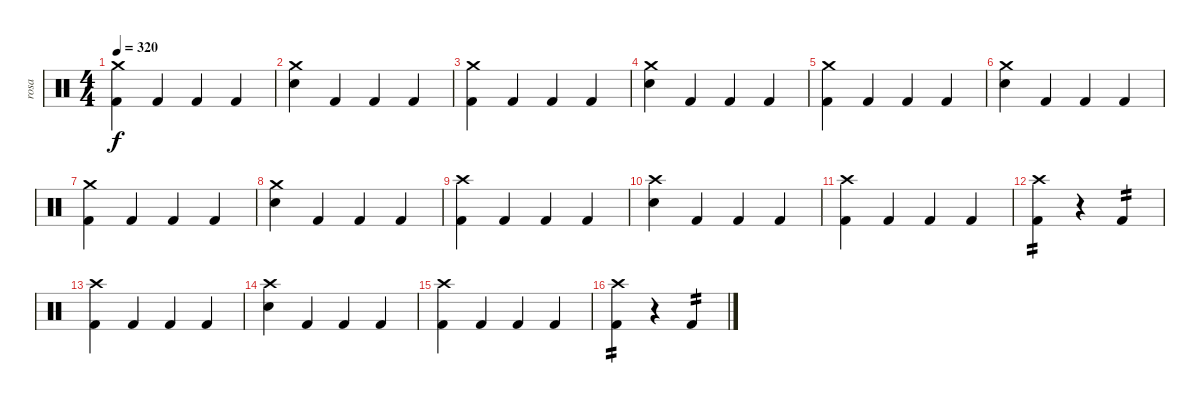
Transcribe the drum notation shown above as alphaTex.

\track ("rosa" "rosa") {instrument percussion}
\staff {score}
\articulation defaults
\ts (4 4)
\tempo 320
\clef neutral
\ks c
("Crash medium (hit)" "Kick (hit) 2").4{dy f} "Kick (hit) 2".4 "Kick (hit) 2".4 "Kick (hit) 2".4 |
("Crash medium (hit)" "Electric Snare (hit)").4 "Kick (hit) 2".4 "Kick (hit) 2".4 "Kick (hit) 2".4 |
("Crash medium (hit)" "Kick (hit) 2").4 "Kick (hit) 2".4 "Kick (hit) 2".4 "Kick (hit) 2".4 |
("Crash medium (hit)" "Electric Snare (hit)").4 "Kick (hit) 2".4 "Kick (hit) 2".4 "Kick (hit) 2".4 |
("Crash medium (hit)" "Kick (hit) 2").4 "Kick (hit) 2".4 "Kick (hit) 2".4 "Kick (hit) 2".4 |
("Crash medium (hit)" "Electric Snare (hit)").4 "Kick (hit) 2".4 "Kick (hit) 2".4 "Kick (hit) 2".4 |
("Crash medium (hit)" "Kick (hit) 2").4 "Kick (hit) 2".4 "Kick (hit) 2".4 "Kick (hit) 2".4 |
("Crash medium (hit)" "Electric Snare (hit)").4 "Kick (hit) 2".4 "Kick (hit) 2".4 "Kick (hit) 2".4 |
("Crash high (hit)" "Kick (hit) 2").4 "Kick (hit) 2".4 "Kick (hit) 2".4 "Kick (hit) 2".4 |
("Crash high (hit)" "Electric Snare (hit)").4 "Kick (hit) 2".4 "Kick (hit) 2".4 "Kick (hit) 2".4 |
("Crash high (hit)" "Kick (hit) 2").4 "Kick (hit) 2".4 "Kick (hit) 2".4 "Kick (hit) 2".4 |
("Crash high (hit)" "Kick (hit) 2").4{tp 2} r.4 "Kick (hit) 2".4{tp 2} |
("Crash high (hit)" "Kick (hit) 2").4 "Kick (hit) 2".4 "Kick (hit) 2".4 "Kick (hit) 2".4 |
("Crash high (hit)" "Electric Snare (hit)").4 "Kick (hit) 2".4 "Kick (hit) 2".4 "Kick (hit) 2".4 |
("Crash high (hit)" "Kick (hit) 2").4 "Kick (hit) 2".4 "Kick (hit) 2".4 "Kick (hit) 2".4 |
("Crash high (hit)" "Kick (hit) 2").4{tp 2} r.4 "Kick (hit) 2".4{tp 2}
